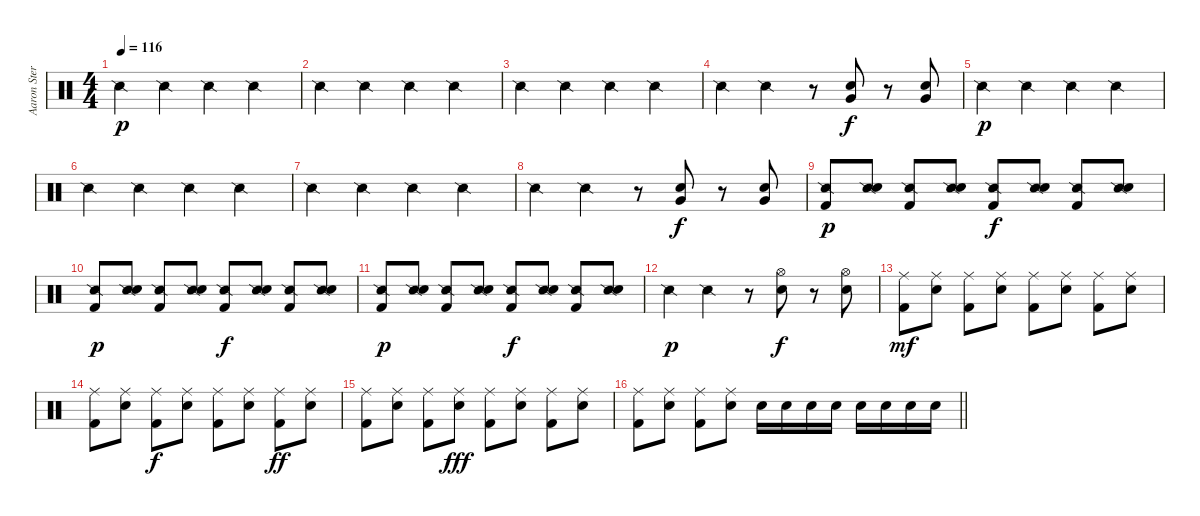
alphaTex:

\track ("Aaron Stern" "Aaron Ster") {instrument percussion}
\staff {score}
\articulation defaults
\ts (4 4)
\tempo 116
\clef neutral
\ks c "Snare (side stick) 2".4{dy p} "Snare (side stick) 2".4 "Snare (side stick) 2".4 "Snare (side stick) 2".4
|
"Snare (side stick) 2".4 "Snare (side stick) 2".4 "Snare (side stick) 2".4 "Snare (side stick) 2".4 |
"Snare (side stick) 2".4 "Snare (side stick) 2".4 "Snare (side stick) 2".4 "Snare (side stick) 2".4 |
"Snare (side stick) 2".4 "Snare (side stick) 2".4 r.8 ("Snare (hit) 2" "Very Low Tom (hit)").8{dy f} r.8 ("Snare (hit) 2" "Very Low Tom (hit)").8 |
"Snare (side stick) 2".4{dy p} "Snare (side stick) 2".4 "Snare (side stick) 2".4 "Snare (side stick) 2".4 |
"Snare (side stick) 2".4 "Snare (side stick) 2".4 "Snare (side stick) 2".4 "Snare (side stick) 2".4 |
"Snare (side stick) 2".4 "Snare (side stick) 2".4 "Snare (side stick) 2".4 "Snare (side stick) 2".4 |
"Snare (side stick) 2".4 "Snare (side stick) 2".4 r.8 ("Snare (hit) 2" "Very Low Tom (hit)").8{dy f} r.8 ("Snare (hit) 2" "Very Low Tom (hit)").8 |
("Snare (side stick) 2" "Kick (hit) 2").8{dy p} ("Snare (side stick) 2" "Snare (hit) 2").8 ("Snare (side stick) 2" "Kick (hit) 2").8 ("Snare (side stick) 2" "Snare (hit) 2").8 ("Snare (side stick) 2" "Kick (hit) 2").8{dy f} ("Snare (side stick) 2" "Snare (hit) 2").8 ("Snare (side stick) 2" "Kick (hit) 2").8 ("Snare (side stick) 2" "Snare (hit) 2").8 |
("Snare (side stick) 2" "Kick (hit) 2").8{dy p} ("Snare (side stick) 2" "Snare (hit) 2").8 ("Snare (side stick) 2" "Kick (hit) 2").8 ("Snare (side stick) 2" "Snare (hit) 2").8 ("Snare (side stick) 2" "Kick (hit) 2").8{dy f} ("Snare (side stick) 2" "Snare (hit) 2").8 ("Snare (side stick) 2" "Kick (hit) 2").8 ("Snare (side stick) 2" "Snare (hit) 2").8 |
("Snare (side stick) 2" "Kick (hit) 2").8{dy p} ("Snare (side stick) 2" "Snare (hit) 2").8 ("Snare (side stick) 2" "Kick (hit) 2").8 ("Snare (side stick) 2" "Snare (hit) 2").8 ("Snare (side stick) 2" "Kick (hit) 2").8{dy f} ("Snare (side stick) 2" "Snare (hit) 2").8 ("Snare (side stick) 2" "Kick (hit) 2").8 ("Snare (side stick) 2" "Snare (hit) 2").8 |
"Snare (side stick) 2".4{dy p} "Snare (side stick) 2".4 r.8 ("Hi-Hat (open)" "Snare (hit) 2").8{dy f} r.8 ("Hi-Hat (open)" "Snare (hit) 2").8 |
("Ride (middle)" "Kick (hit) 2").8{dy mf} ("Ride (middle)" "Snare (hit) 2").8 ("Ride (middle)" "Kick (hit) 2").8 ("Ride (middle)" "Snare (hit) 2").8 ("Ride (middle)" "Kick (hit) 2").8 ("Ride (middle)" "Snare (hit) 2").8 ("Ride (middle)" "Kick (hit) 2").8 ("Ride (middle)" "Snare (hit) 2").8 |
("Ride (middle)" "Kick (hit) 2").8 ("Ride (middle)" "Snare (hit) 2").8 ("Ride (middle)" "Kick (hit) 2").8{dy f} ("Ride (middle)" "Snare (hit) 2").8 ("Ride (middle)" "Kick (hit) 2").8 ("Ride (middle)" "Snare (hit) 2").8 ("Ride (middle)" "Kick (hit) 2").8{dy ff} ("Ride (middle)" "Snare (hit) 2").8 |
("Ride (middle)" "Kick (hit) 2").8 ("Ride (middle)" "Snare (hit) 2").8 ("Ride (middle)" "Kick (hit) 2").8 ("Ride (middle)" "Snare (hit) 2").8{dy fff} ("Ride (middle)" "Kick (hit) 2").8 ("Ride (middle)" "Snare (hit) 2").8 ("Ride (middle)" "Kick (hit) 2").8 ("Ride (middle)" "Snare (hit) 2").8 |
\barLineRight lightlight
("Ride (middle)" "Kick (hit) 2").8 ("Ride (middle)" "Snare (hit) 2").8 ("Ride (middle)" "Kick (hit) 2").8 ("Ride (middle)" "Snare (hit) 2").8 "Snare (hit) 2".16 "Snare (hit) 2".16 "Snare (hit) 2".16 "Snare (hit) 2".16 "Snare (hit) 2".16 "Snare (hit) 2".16 "Snare (hit) 2".16 "Snare (hit) 2".16
